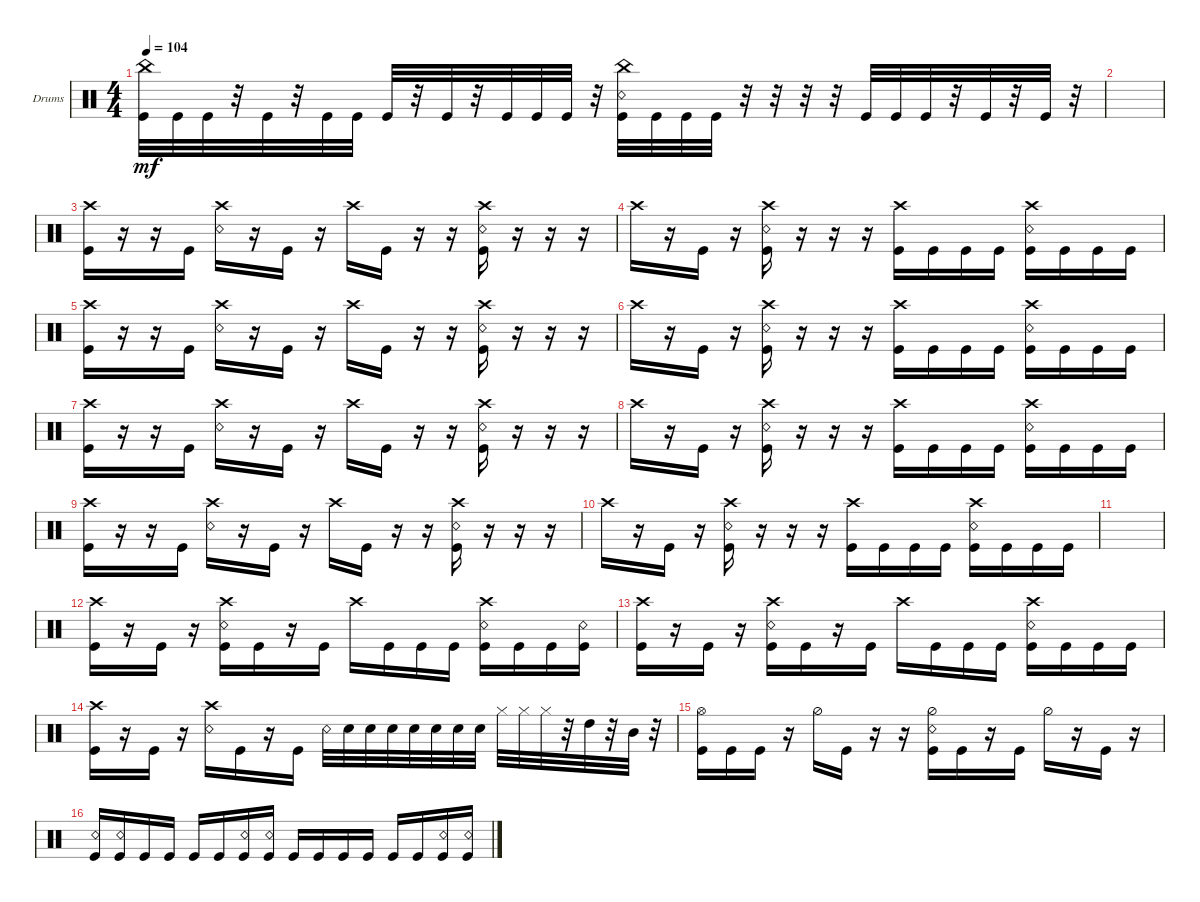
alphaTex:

\defaultSystemsLayout 4
\bracketExtendMode groupsimilarinstruments
\firstSystemTrackNameOrientation horizontal
\otherSystemsTrackNameOrientation horizontal
\track ("Drums" "Drums") {instrument percussion}
\staff {score}
\articulation defaults
\ts (4 4)
\tempo 104
\clef neutral
\ks c
("China (hit)" "Kick (hit)").32{dy mf} "Kick (hit)".32 "Kick (hit)".32 r.32 "Kick (hit)".32 r.32 "Kick (hit)".32 "Kick (hit)".32 "Kick (hit)".32 r.32 "Kick (hit)".32 r.32 "Kick (hit)".32 "Kick (hit)".32 "Kick (hit)".32 r.32 ("China (hit)" "Snare (rim shot)" "Kick (hit)").32 "Kick (hit)".32 "Kick (hit)".32 "Kick (hit)".32 r.32 r.32 r.32 r.32 "Kick (hit)".32 "Kick (hit)".32 "Kick (hit)".32 r.32 "Kick (hit)".32 r.32 "Kick (hit)".32 r.32 |
|
("Kick (hit)" "Crash high (hit)").16 r.16 r.16 "Kick (hit)".16 ("Crash high (hit)" "Snare (rim shot)").16 r.16 "Kick (hit)".16 r.16 "Crash high (hit)".16 "Kick (hit)".16 r.16 r.16 ("Kick (hit)" "Crash high (hit)" "Snare (rim shot)").16 r.16 r.16 r.16 |
"Crash high (hit)".16 r.16 "Kick (hit)".16 r.16 ("Kick (hit)" "Crash high (hit)" "Snare (rim shot)").16 r.16 r.16 r.16 ("Kick (hit)" "Crash high (hit)").16 "Kick (hit)".16 "Kick (hit)".16 "Kick (hit)".16 ("Kick (hit)" "Crash high (hit)" "Snare (rim shot)").16 "Kick (hit)".16 "Kick (hit)".16 "Kick (hit)".16 |
("Kick (hit)" "Crash high (hit)").16 r.16 r.16 "Kick (hit)".16 ("Crash high (hit)" "Snare (rim shot)").16 r.16 "Kick (hit)".16 r.16 "Crash high (hit)".16 "Kick (hit)".16 r.16 r.16 ("Kick (hit)" "Crash high (hit)" "Snare (rim shot)").16 r.16 r.16 r.16 |
"Crash high (hit)".16 r.16 "Kick (hit)".16 r.16 ("Kick (hit)" "Crash high (hit)" "Snare (rim shot)").16 r.16 r.16 r.16 ("Kick (hit)" "Crash high (hit)").16 "Kick (hit)".16 "Kick (hit)".16 "Kick (hit)".16 ("Kick (hit)" "Crash high (hit)" "Snare (rim shot)").16 "Kick (hit)".16 "Kick (hit)".16 "Kick (hit)".16 |
("Kick (hit)" "Crash high (hit)").16 r.16 r.16 "Kick (hit)".16 ("Crash high (hit)" "Snare (rim shot)").16 r.16 "Kick (hit)".16 r.16 "Crash high (hit)".16 "Kick (hit)".16 r.16 r.16 ("Kick (hit)" "Crash high (hit)" "Snare (rim shot)").16 r.16 r.16 r.16 |
"Crash high (hit)".16 r.16 "Kick (hit)".16 r.16 ("Kick (hit)" "Crash high (hit)" "Snare (rim shot)").16 r.16 r.16 r.16 ("Kick (hit)" "Crash high (hit)").16 "Kick (hit)".16 "Kick (hit)".16 "Kick (hit)".16 ("Kick (hit)" "Crash high (hit)" "Snare (rim shot)").16 "Kick (hit)".16 "Kick (hit)".16 "Kick (hit)".16 |
("Kick (hit)" "Crash high (hit)").16 r.16 r.16 "Kick (hit)".16 ("Crash high (hit)" "Snare (rim shot)").16 r.16 "Kick (hit)".16 r.16 "Crash high (hit)".16 "Kick (hit)".16 r.16 r.16 ("Kick (hit)" "Crash high (hit)" "Snare (rim shot)").16 r.16 r.16 r.16 |
"Crash high (hit)".16 r.16 "Kick (hit)".16 r.16 ("Kick (hit)" "Crash high (hit)" "Snare (rim shot)").16 r.16 r.16 r.16 ("Kick (hit)" "Crash high (hit)").16 "Kick (hit)".16 "Kick (hit)".16 "Kick (hit)".16 ("Kick (hit)" "Crash high (hit)" "Snare (rim shot)").16 "Kick (hit)".16 "Kick (hit)".16 "Kick (hit)".16 |
|
("Crash high (hit)" "Kick (hit)").16 r.16 "Kick (hit)".16 r.16 ("Crash high (hit)" "Snare (rim shot)" "Kick (hit)").16 "Kick (hit)".16 r.16 "Kick (hit)".16 "Crash high (hit)".16 "Kick (hit)".16 "Kick (hit)".16 "Kick (hit)".16 ("Crash high (hit)" "Kick (hit)" "Snare (rim shot)").16 "Kick (hit)".16 "Kick (hit)".16 ("Kick (hit)" "Snare (rim shot)").16 |
("Crash high (hit)" "Kick (hit)").16 r.16 "Kick (hit)".16 r.16 ("Crash high (hit)" "Snare (rim shot)" "Kick (hit)").16 "Kick (hit)".16 r.16 "Kick (hit)".16 "Crash high (hit)".16 "Kick (hit)".16 "Kick (hit)".16 "Kick (hit)".16 ("Crash high (hit)" "Kick (hit)" "Snare (rim shot)").16 "Kick (hit)".16 "Kick (hit)".16 "Kick (hit)".16 |
("Kick (hit)" "Crash high (hit)").16 r.16 "Kick (hit)".16 r.16 ("Snare (rim shot)" "Crash high (hit)").16 "Kick (hit)".16 r.16 "Kick (hit)".16 "Snare (rim shot)".32 "Snare (hit) 2".32 "Snare (hit) 2".32 "Snare (hit) 2".32 "Snare (hit) 2".32 "Snare (hit) 2".32 "Snare (hit) 2".32 "Snare (hit) 2".32 "Hi-Hat (closed)".32 "Hi-Hat (closed)".32 "Hi-Hat (closed)".32 r.32 "High Tom (hit)".32 r.32 "Mid Tom (hit)".32 r.32 |
("Kick (hit)" "Hi-Hat (open)").16 "Kick (hit)".16 "Kick (hit)".16 r.16 "Hi-Hat (half)".16 "Kick (hit)".16 r.16 r.16 ("Kick (hit)" "Hi-Hat (half)" "Snare (rim shot)").16 "Kick (hit)".16 r.16 "Kick (hit)".16 "Hi-Hat (half)".16 r.16 "Kick (hit)".16 r.16 |
("Kick (hit)" "Snare (rim shot)").16 ("Kick (hit)" "Snare (rim shot)").16 "Kick (hit)".16 "Kick (hit)".16 "Kick (hit)".16 "Kick (hit)".16 ("Kick (hit)" "Snare (rim shot)").16 ("Kick (hit)" "Snare (rim shot)").16 "Kick (hit)".16 "Kick (hit)".16 "Kick (hit)".16 "Kick (hit)".16 "Kick (hit)".16 "Kick (hit)".16 ("Kick (hit)" "Snare (rim shot)").16 ("Kick (hit)" "Snare (rim shot)").16
